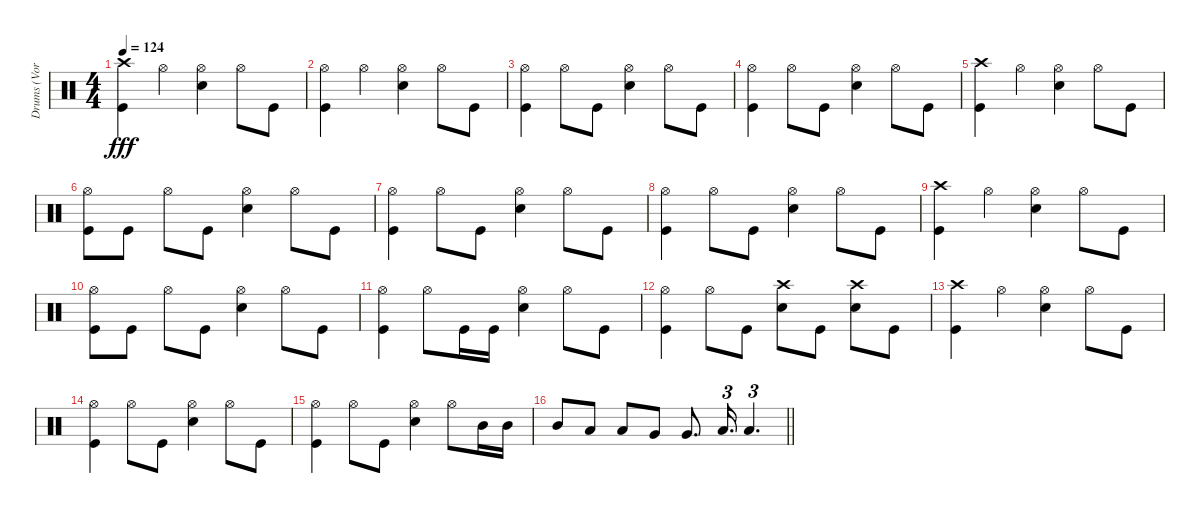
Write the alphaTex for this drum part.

\track ("Drums (Vortex)" "Drums (Vor") {instrument percussion}
\staff {score}
\articulation defaults
\ts (4 4)
\tempo 124
\clef neutral
\ks c
("Crash high (hit)" "Kick (hit)").4{dy fff} "Hi-Hat (open)".4 ("Hi-Hat (open)" "Snare (hit) 2").4 "Hi-Hat (open)".8 "Kick (hit)".8 |
("Kick (hit)" "Hi-Hat (open)").4 "Hi-Hat (open)".4 ("Hi-Hat (open)" "Snare (hit) 2").4 "Hi-Hat (open)".8 "Kick (hit)".8 |
("Kick (hit)" "Hi-Hat (open)").4 "Hi-Hat (open)".8 "Kick (hit)".8 ("Hi-Hat (open)" "Snare (hit) 2").4 "Hi-Hat (open)".8 "Kick (hit)".8 |
("Kick (hit)" "Hi-Hat (open)").4 "Hi-Hat (open)".8 "Kick (hit)".8 ("Hi-Hat (open)" "Snare (hit) 2").4 "Hi-Hat (open)".8 "Kick (hit)".8 |
("Crash high (hit)" "Kick (hit)").4 "Hi-Hat (open)".4 ("Hi-Hat (open)" "Snare (hit) 2").4 "Hi-Hat (open)".8 "Kick (hit)".8 |
("Kick (hit)" "Hi-Hat (open)").8 "Kick (hit)".8 "Hi-Hat (open)".8 "Kick (hit)".8 ("Hi-Hat (open)" "Snare (hit) 2").4 "Hi-Hat (open)".8 "Kick (hit)".8 |
("Kick (hit)" "Hi-Hat (open)").4 "Hi-Hat (open)".8 "Kick (hit)".8 ("Hi-Hat (open)" "Snare (hit) 2").4 "Hi-Hat (open)".8 "Kick (hit)".8 |
("Kick (hit)" "Hi-Hat (open)").4 "Hi-Hat (open)".8 "Kick (hit)".8 ("Hi-Hat (open)" "Snare (hit) 2").4 "Hi-Hat (open)".8 "Kick (hit)".8 |
("Crash high (hit)" "Kick (hit)").4 "Hi-Hat (open)".4 ("Hi-Hat (open)" "Snare (hit) 2").4 "Hi-Hat (open)".8 "Kick (hit)".8 |
("Kick (hit)" "Hi-Hat (open)").8 "Kick (hit)".8 "Hi-Hat (open)".8 "Kick (hit)".8 ("Hi-Hat (open)" "Snare (hit) 2").4 "Hi-Hat (open)".8 "Kick (hit)".8 |
("Kick (hit)" "Hi-Hat (open)").4 "Hi-Hat (open)".8 "Kick (hit)".16 "Kick (hit)".16 ("Hi-Hat (open)" "Snare (hit) 2").4 "Hi-Hat (open)".8 "Kick (hit)".8 |
("Kick (hit)" "Hi-Hat (open)").4 "Hi-Hat (open)".8 "Kick (hit)".8 ("Crash high (hit)" "Snare (hit) 2").8 "Kick (hit)".8 ("Crash high (hit)" "Snare (hit) 2").8 "Kick (hit)".8 |
("Crash high (hit)" "Kick (hit)").4 "Hi-Hat (open)".4 ("Hi-Hat (open)" "Snare (hit) 2").4 "Hi-Hat (open)".8 "Kick (hit)".8 |
("Kick (hit)" "Hi-Hat (open)").4 "Hi-Hat (open)".8 "Kick (hit)".8 ("Hi-Hat (open)" "Snare (hit) 2").4 "Hi-Hat (open)".8 "Kick (hit)".8 |
("Kick (hit)" "Hi-Hat (open)").4 "Hi-Hat (open)".8 "Kick (hit)".8 ("Hi-Hat (open)" "Snare (hit) 2").4 "Hi-Hat (open)".8 "Mid Tom (hit)".16 "Mid Tom (hit)".16 |
\barLineRight lightlight "Mid Tom (hit)".8 "Low Tom (hit)".8 "Low Tom (hit)".8 "Very Low Tom (hit)".8 "Very Low Tom (hit)".8{d} "Low Floor Tom (hit)".16{d tu (3 2)} "Low Floor Tom (hit)".4{d tu (3 2)}
